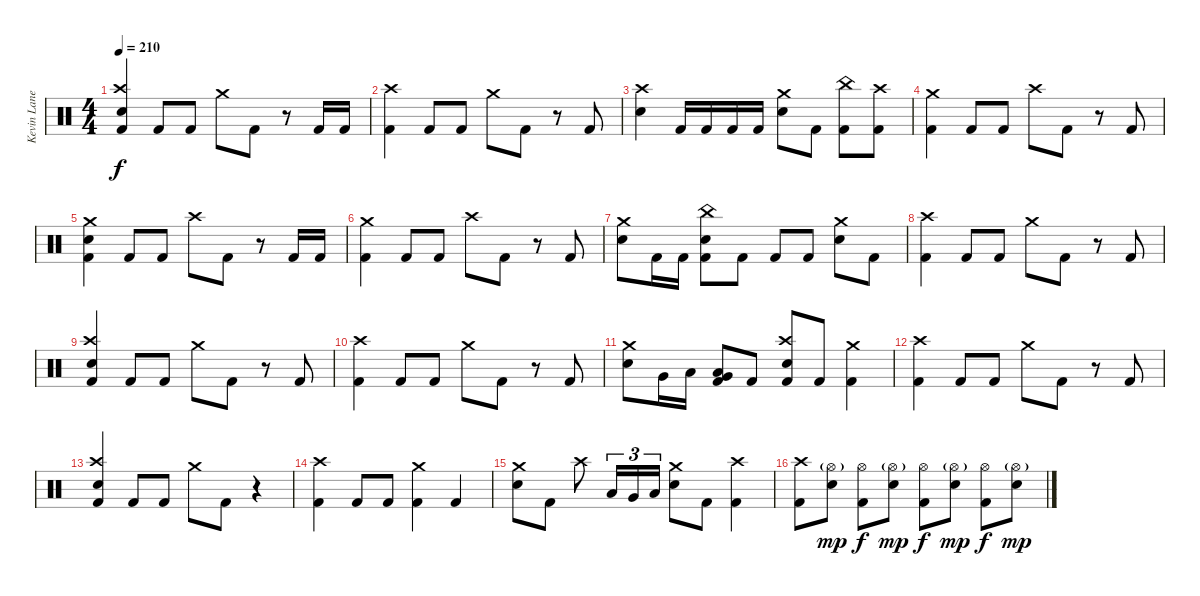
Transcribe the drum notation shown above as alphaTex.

\track ("Kevin Lane (Drums)" "Kevin Lane") {instrument percussion}
\staff {score}
\articulation defaults
\ts (4 4)
\tempo 210
\clef neutral
\ks c
("Snare (hit) 2" "Crash high (hit)" "Kick (hit) 2").4{dy f} "Kick (hit) 2".8 "Kick (hit) 2".8 "Crash medium (hit)".8 "Kick (hit) 2".8 r.8 "Kick (hit) 2".16 "Kick (hit) 2".16 |
("Crash high (hit)" "Kick (hit) 2").4 "Kick (hit) 2".8 "Kick (hit) 2".8 "Crash medium (hit)".8 "Kick (hit) 2".8 r.8 "Kick (hit) 2".8 |
("Snare (hit) 2" "Crash high (hit)").4 "Kick (hit) 2".16 "Kick (hit) 2".16 "Kick (hit) 2".16 "Kick (hit) 2".16 ("Crash medium (hit)" "Snare (hit) 2").8 "Kick (hit) 2".8 ("China (hit)" "Kick (hit) 2").8 ("Crash high (hit)" "Kick (hit) 2").8 |
("Crash medium (hit)" "Kick (hit) 2").4 "Kick (hit) 2".8 "Kick (hit) 2".8 "Crash high (hit)".8 "Kick (hit) 2".8 r.8 "Kick (hit) 2".8 |
("Snare (hit) 2" "Crash medium (hit)" "Kick (hit) 2").4 "Kick (hit) 2".8 "Kick (hit) 2".8 "Crash high (hit)".8 "Kick (hit) 2".8 r.8 "Kick (hit) 2".16 "Kick (hit) 2".16 |
("Crash medium (hit)" "Kick (hit) 2").4 "Kick (hit) 2".8 "Kick (hit) 2".8 "Crash high (hit)".8 "Kick (hit) 2".8 r.8 "Kick (hit) 2".8 |
("Snare (hit) 2" "Crash medium (hit)").8 "Kick (hit) 2".16 "Kick (hit) 2".16 ("China (hit)" "Snare (hit) 2" "Kick (hit) 2").8 "Kick (hit) 2".8 "Kick (hit) 2".8 "Kick (hit) 2".8 ("Crash medium (hit)" "Snare (hit) 2").8 "Kick (hit) 2".8 |
("Crash high (hit)" "Kick (hit) 2").4 "Kick (hit) 2".8 "Kick (hit) 2".8 "Crash medium (hit)".8 "Kick (hit) 2".8 r.8 "Kick (hit) 2".8 |
("Snare (hit) 2" "Crash high (hit)" "Kick (hit) 2").4 "Kick (hit) 2".8 "Kick (hit) 2".8 "Crash medium (hit)".8 "Kick (hit) 2".8 r.8 "Kick (hit) 2".8 |
("Crash high (hit)" "Kick (hit) 2").4 "Kick (hit) 2".8 "Kick (hit) 2".8 "Crash medium (hit)".8 "Kick (hit) 2".8 r.8 "Kick (hit) 2".8 |
("Snare (hit) 2" "Crash medium (hit)").8 "Very Low Tom (hit)".16 "Low Floor Tom (hit)".16 ("Low Floor Tom (hit)" "Very Low Tom (hit)" "Kick (hit) 2").8 "Kick (hit) 2".8 ("Snare (hit) 2" "Crash high (hit)" "Kick (hit) 2").8 "Kick (hit) 2".8 ("Crash medium (hit)" "Kick (hit) 2").4 |
("Crash high (hit)" "Kick (hit) 2").4 "Kick (hit) 2".8 "Kick (hit) 2".8 "Crash medium (hit)".8 "Kick (hit) 2".8 r.8 "Kick (hit) 2".8 |
("Snare (hit) 2" "Crash high (hit)" "Kick (hit) 2").4 "Kick (hit) 2".8 "Kick (hit) 2".8 "Crash medium (hit)".8 "Kick (hit) 2".8 r.4 |
("Crash high (hit)" "Kick (hit) 2").4 "Kick (hit) 2".8 "Kick (hit) 2".8 ("Kick (hit) 2" "Crash medium (hit)").4 "Kick (hit) 2".4 |
("Snare (hit) 2" "Crash medium (hit)").8 "Kick (hit) 2".8 "Crash high (hit)".8 "Low Tom (hit)".16{tu (3 2)} "Very Low Tom (hit)".16{tu (3 2)} "Low Floor Tom (hit)".16{tu (3 2)} ("Crash medium (hit)" "Snare (hit) 2").8 "Kick (hit) 2".8 ("Crash high (hit)" "Kick (hit) 2").4 |
("Crash high (hit)" "Kick (hit) 2").8 ("Hi-Hat (open)"{g} "Snare (hit) 2").8{dy mp} ("Hi-Hat (open)" "Kick (hit) 2").8{dy f} ("Hi-Hat (open)"{g} "Snare (hit) 2").8{dy mp} ("Hi-Hat (open)" "Kick (hit) 2").8{dy f} ("Hi-Hat (open)"{g} "Snare (hit) 2").8{dy mp} ("Hi-Hat (open)" "Kick (hit) 2").8{dy f} ("Hi-Hat (open)"{g} "Snare (hit) 2").8{dy mp}
